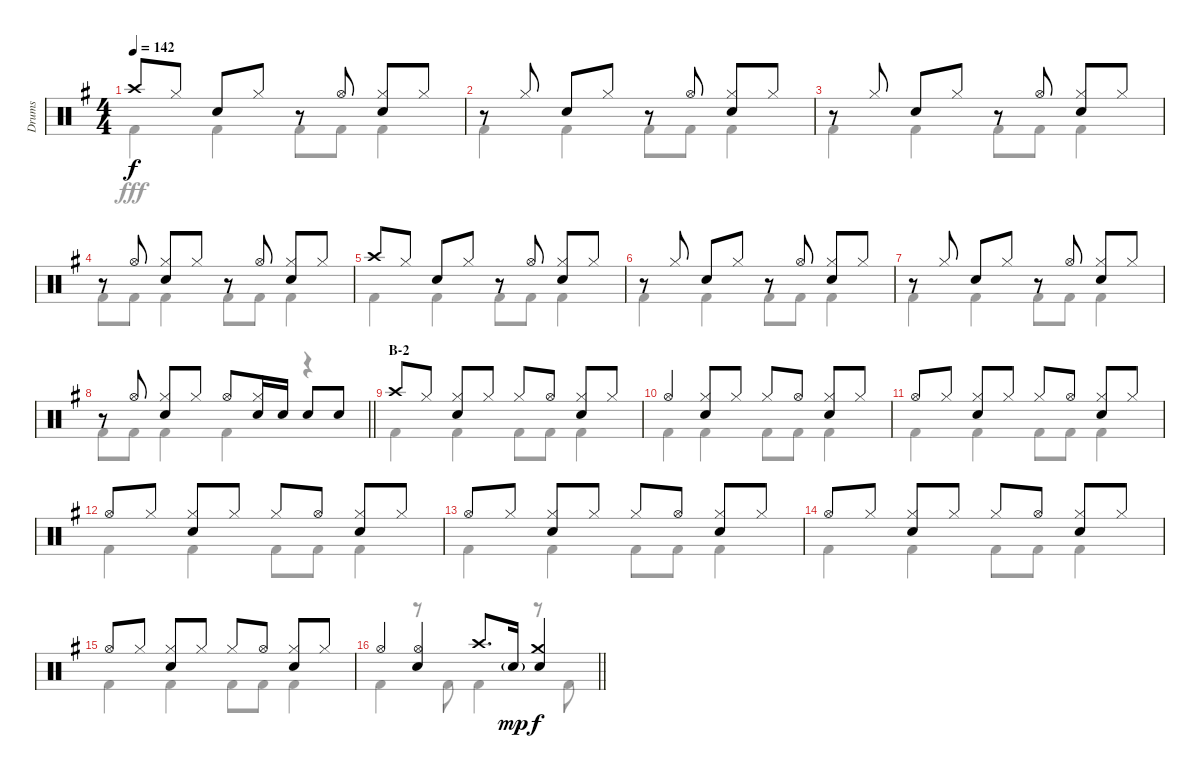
\track ("Drums" "Drums") {instrument percussion}
\staff {score}
\articulation defaults
\voice
\ts (4 4)
\tempo 142
\clef neutral
\ks g "Crash high (hit)".8{dy f} "Hi-Hat (closed)".8 "Snare (hit) 2".8 "Hi-Hat (closed)".8
r.8 "Hi-Hat (open)".8 ("Hi-Hat (closed)" "Snare (hit) 2").8 "Hi-Hat (closed)".8 |
r.8 "Hi-Hat (closed)".8 "Snare (hit) 2".8 "Hi-Hat (closed)".8 r.8 "Hi-Hat (open)".8 ("Hi-Hat (closed)" "Snare (hit) 2").8 "Hi-Hat (closed)".8 |
r.8 "Hi-Hat (closed)".8 "Snare (hit) 2".8 "Hi-Hat (closed)".8 r.8 "Hi-Hat (open)".8 ("Hi-Hat (closed)" "Snare (hit) 2").8 "Hi-Hat (closed)".8 |
r.8 "Hi-Hat (open)".8 ("Hi-Hat (closed)" "Snare (hit) 2").8 "Hi-Hat (closed)".8 r.8 "Hi-Hat (open)".8 ("Hi-Hat (closed)" "Snare (hit) 2").8 "Hi-Hat (closed)".8 |
"Crash high (hit)".8 "Hi-Hat (closed)".8 "Snare (hit) 2".8 "Hi-Hat (closed)".8 r.8 "Hi-Hat (open)".8 ("Hi-Hat (closed)" "Snare (hit) 2").8 "Hi-Hat (closed)".8 |
r.8 "Hi-Hat (closed)".8 "Snare (hit) 2".8 "Hi-Hat (closed)".8 r.8 "Hi-Hat (open)".8 ("Hi-Hat (closed)" "Snare (hit) 2").8 "Hi-Hat (closed)".8 |
r.8 "Hi-Hat (closed)".8 "Snare (hit) 2".8 "Hi-Hat (closed)".8 r.8 "Hi-Hat (open)".8 ("Hi-Hat (closed)" "Snare (hit) 2").8 "Hi-Hat (closed)".8 |
\barLineRight lightlight
r.8 "Hi-Hat (open)".8 ("Hi-Hat (closed)" "Snare (hit) 2").8 "Hi-Hat (closed)".8 "Hi-Hat (open)".8 ("Hi-Hat (closed)" "Snare (hit) 2").16 "Snare (hit) 2".16 "Snare (hit) 2".8 "Snare (hit) 2".8 |
\section ("" "B-2")
"Crash high (hit)".8 "Hi-Hat (closed)".8 ("Hi-Hat (closed)" "Snare (hit) 2").8 "Hi-Hat (closed)".8 "Hi-Hat (closed)".8 "Hi-Hat (open)".8 ("Hi-Hat (closed)" "Snare (hit) 2").8 "Hi-Hat (closed)".8 |
"Hi-Hat (open)".4 ("Hi-Hat (closed)" "Snare (hit) 2").8 "Hi-Hat (closed)".8 "Hi-Hat (closed)".8 "Hi-Hat (open)".8 ("Hi-Hat (closed)" "Snare (hit) 2").8 "Hi-Hat (closed)".8 |
"Hi-Hat (open)".8 "Hi-Hat (closed)".8 ("Hi-Hat (closed)" "Snare (hit) 2").8 "Hi-Hat (closed)".8 "Hi-Hat (closed)".8 "Hi-Hat (open)".8 ("Hi-Hat (closed)" "Snare (hit) 2").8 "Hi-Hat (closed)".8 |
"Hi-Hat (open)".8 "Hi-Hat (closed)".8 ("Hi-Hat (closed)" "Snare (hit) 2").8 "Hi-Hat (closed)".8 "Hi-Hat (closed)".8 "Hi-Hat (open)".8 ("Hi-Hat (closed)" "Snare (hit) 2").8 "Hi-Hat (closed)".8 |
"Hi-Hat (open)".8 "Hi-Hat (closed)".8 ("Hi-Hat (closed)" "Snare (hit) 2").8 "Hi-Hat (closed)".8 "Hi-Hat (closed)".8 "Hi-Hat (open)".8 ("Hi-Hat (closed)" "Snare (hit) 2").8 "Hi-Hat (closed)".8 |
"Hi-Hat (open)".8 "Hi-Hat (closed)".8 ("Hi-Hat (closed)" "Snare (hit) 2").8 "Hi-Hat (closed)".8 "Hi-Hat (closed)".8 "Hi-Hat (open)".8 ("Hi-Hat (closed)" "Snare (hit) 2").8 "Hi-Hat (closed)".8 |
"Hi-Hat (open)".8 "Hi-Hat (closed)".8 ("Hi-Hat (closed)" "Snare (hit) 2").8 "Hi-Hat (closed)".8 "Hi-Hat (closed)".8 "Hi-Hat (open)".8 ("Hi-Hat (closed)" "Snare (hit) 2").8 "Hi-Hat (closed)".8 |
\barLineRight lightlight "Hi-Hat (open)".4
("Hi-Hat (open)" "Snare (hit) 2").4 "Crash high (hit)".8{d} "Snare (hit) 2"{g}.16{dy mp} ("Crash medium (hit)" "Snare (hit) 2").4{dy f}
\voice
\clef neutral
\ottava regular
\simile none
\ks g "Kick (hit) 2".4{dy fff} "Kick (hit) 2".4 "Kick (hit) 2".8 "Kick (hit) 2".8 "Kick (hit) 2".4
|
"Kick (hit) 2".4 "Kick (hit) 2".4 "Kick (hit) 2".8 "Kick (hit) 2".8 "Kick (hit) 2".4 |
"Kick (hit) 2".4 "Kick (hit) 2".4 "Kick (hit) 2".8 "Kick (hit) 2".8 "Kick (hit) 2".4 |
"Kick (hit) 2".8 "Kick (hit) 2".8 "Kick (hit) 2".4 "Kick (hit) 2".8 "Kick (hit) 2".8 "Kick (hit) 2".4 |
"Kick (hit) 2".4 "Kick (hit) 2".4 "Kick (hit) 2".8 "Kick (hit) 2".8 "Kick (hit) 2".4 |
"Kick (hit) 2".4 "Kick (hit) 2".4 "Kick (hit) 2".8 "Kick (hit) 2".8 "Kick (hit) 2".4 |
"Kick (hit) 2".4 "Kick (hit) 2".4 "Kick (hit) 2".8 "Kick (hit) 2".8 "Kick (hit) 2".4 |
\barLineRight lightlight "Kick (hit) 2".8 "Kick (hit) 2".8 "Kick (hit) 2".4 "Kick (hit) 2".4
r.4 |
"Kick (hit) 2".4 "Kick (hit) 2".4 "Kick (hit) 2".8 "Kick (hit) 2".8 "Kick (hit) 2".4 |
"Kick (hit) 2".4 "Kick (hit) 2".4 "Kick (hit) 2".8 "Kick (hit) 2".8 "Kick (hit) 2".4 |
"Kick (hit) 2".4 "Kick (hit) 2".4 "Kick (hit) 2".8 "Kick (hit) 2".8 "Kick (hit) 2".4 |
"Kick (hit) 2".4 "Kick (hit) 2".4 "Kick (hit) 2".8 "Kick (hit) 2".8 "Kick (hit) 2".4 |
"Kick (hit) 2".4 "Kick (hit) 2".4 "Kick (hit) 2".8 "Kick (hit) 2".8 "Kick (hit) 2".4 |
"Kick (hit) 2".4 "Kick (hit) 2".4 "Kick (hit) 2".8 "Kick (hit) 2".8 "Kick (hit) 2".4 |
"Kick (hit) 2".4 "Kick (hit) 2".4 "Kick (hit) 2".8 "Kick (hit) 2".8 "Kick (hit) 2".4 |
\barLineRight lightlight "Kick (hit) 2".4
r.8 "Kick (hit) 2".8 "Kick (hit) 2".4 r.8 "Kick (hit) 2".8
